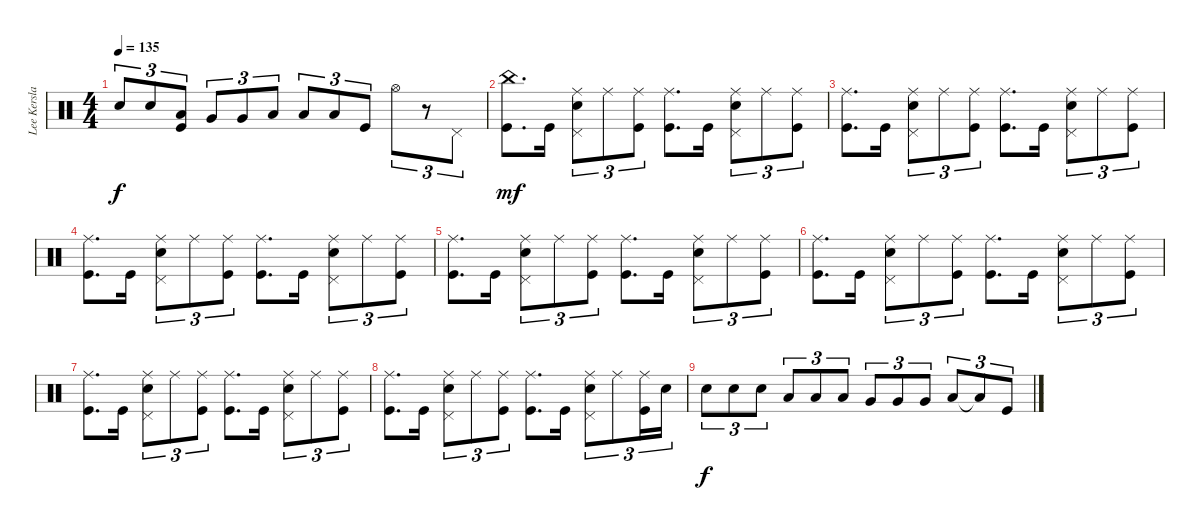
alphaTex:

\track ("Lee Kerslake (drums)" "Lee Kersla") {instrument percussion}
\staff {score}
\articulation defaults
\ts (4 4)
\tempo 135
\clef neutral
\ks c "Snare (hit) 2".8{tu (3 2) dy f} "Snare (hit) 2".8{tu (3 2)}
("Low Floor Tom (hit)" "Kick (hit)").8{tu (3 2)} "Very Low Tom (hit)".8{tu (3 2)} "Very Low Tom (hit)".8{tu (3 2)} "Low Floor Tom (hit)".8{tu (3 2)} "Low Floor Tom (hit)".8{tu (3 2)} "Low Floor Tom (hit)".8{tu (3 2)} "Kick (hit)".8{tu (3 2)} "Hi-Hat (open)".8{tu (3 2)} r.8{tu (3 2)} "Pedal Hi-Hat (hit)".8{tu (3 2)} |
("China (hit)" "Kick (hit)").8{d dy mf volume 12} "Kick (hit)".16 ("Ride (middle)" "Pedal Hi-Hat (hit)" "Snare (hit) 2").8{tu (3 2)} "Ride (middle)".8{tu (3 2)} ("Ride (middle)" "Kick (hit)").8{tu (3 2)} ("Ride (middle)" "Kick (hit)").8{d} "Kick (hit)".16 ("Ride (middle)" "Pedal Hi-Hat (hit)" "Snare (hit) 2").8{tu (3 2)} "Ride (middle)".8{tu (3 2)} ("Ride (middle)" "Kick (hit)").8{tu (3 2)} |
("Ride (middle)" "Kick (hit)").8{d} "Kick (hit)".16 ("Ride (middle)" "Pedal Hi-Hat (hit)" "Snare (hit) 2").8{tu (3 2)} "Ride (middle)".8{tu (3 2)} ("Ride (middle)" "Kick (hit)").8{tu (3 2)} ("Ride (middle)" "Kick (hit)").8{d} "Kick (hit)".16 ("Ride (middle)" "Pedal Hi-Hat (hit)" "Snare (hit) 2").8{tu (3 2)} "Ride (middle)".8{tu (3 2)} ("Ride (middle)" "Kick (hit)").8{tu (3 2)} |
("Ride (middle)" "Kick (hit)").8{d volume 8} "Kick (hit)".16 ("Ride (middle)" "Pedal Hi-Hat (hit)" "Snare (hit) 2").8{tu (3 2)} "Ride (middle)".8{tu (3 2)} ("Ride (middle)" "Kick (hit)").8{tu (3 2)} ("Ride (middle)" "Kick (hit)").8{d} "Kick (hit)".16 ("Ride (middle)" "Pedal Hi-Hat (hit)" "Snare (hit) 2").8{tu (3 2)} "Ride (middle)".8{tu (3 2)} ("Ride (middle)" "Kick (hit)").8{tu (3 2)} |
("Ride (middle)" "Kick (hit)").8{d} "Kick (hit)".16 ("Ride (middle)" "Pedal Hi-Hat (hit)" "Snare (hit) 2").8{tu (3 2)} "Ride (middle)".8{tu (3 2)} ("Ride (middle)" "Kick (hit)").8{tu (3 2)} ("Ride (middle)" "Kick (hit)").8{d} "Kick (hit)".16 ("Ride (middle)" "Pedal Hi-Hat (hit)" "Snare (hit) 2").8{tu (3 2)} "Ride (middle)".8{tu (3 2)} ("Ride (middle)" "Kick (hit)").8{tu (3 2)} |
("Ride (middle)" "Kick (hit)").8{d volume 4} "Kick (hit)".16 ("Ride (middle)" "Pedal Hi-Hat (hit)" "Snare (hit) 2").8{tu (3 2)} "Ride (middle)".8{tu (3 2)} ("Ride (middle)" "Kick (hit)").8{tu (3 2)} ("Ride (middle)" "Kick (hit)").8{d} "Kick (hit)".16 ("Ride (middle)" "Pedal Hi-Hat (hit)" "Snare (hit) 2").8{tu (3 2)} "Ride (middle)".8{tu (3 2)} ("Ride (middle)" "Kick (hit)").8{tu (3 2)} |
("Ride (middle)" "Kick (hit)").8{d} "Kick (hit)".16 ("Ride (middle)" "Pedal Hi-Hat (hit)" "Snare (hit) 2").8{tu (3 2)} "Ride (middle)".8{tu (3 2)} ("Ride (middle)" "Kick (hit)").8{tu (3 2)} ("Ride (middle)" "Kick (hit)").8{d} "Kick (hit)".16 ("Ride (middle)" "Pedal Hi-Hat (hit)" "Snare (hit) 2").8{tu (3 2)} "Ride (middle)".8{tu (3 2)} ("Ride (middle)" "Kick (hit)").8{tu (3 2)} |
("Ride (middle)" "Kick (hit)").8{d volume 1} "Kick (hit)".16 ("Ride (middle)" "Pedal Hi-Hat (hit)" "Snare (hit) 2").8{tu (3 2)} "Ride (middle)".8{tu (3 2)} ("Ride (middle)" "Kick (hit)").8{tu (3 2)} ("Ride (middle)" "Kick (hit)").8{d} "Kick (hit)".16 ("Ride (middle)" "Pedal Hi-Hat (hit)" "Snare (hit) 2").8{tu (3 2)} "Ride (middle)".8{tu (3 2)} ("Ride (middle)" "Kick (hit)").16{tu (3 2)} "Snare (hit) 2".16{tu (3 2)} |
"Snare (hit) 2".8{tu (3 2) dy f} "Snare (hit) 2".8{tu (3 2)} "Snare (hit) 2".8{tu (3 2)} "Low Tom (hit)".8{tu (3 2)} "Low Tom (hit)".8{tu (3 2)} "Low Tom (hit)".8{tu (3 2)} "Very Low Tom (hit)".8{tu (3 2)} "Very Low Tom (hit)".8{tu (3 2)} "Very Low Tom (hit)".8{tu (3 2)} "Low Floor Tom (hit)".8{tu (3 2)} "Low Floor Tom (hit)"{t}.8{tu (3 2)} "Kick (hit)".8{tu (3 2)}
